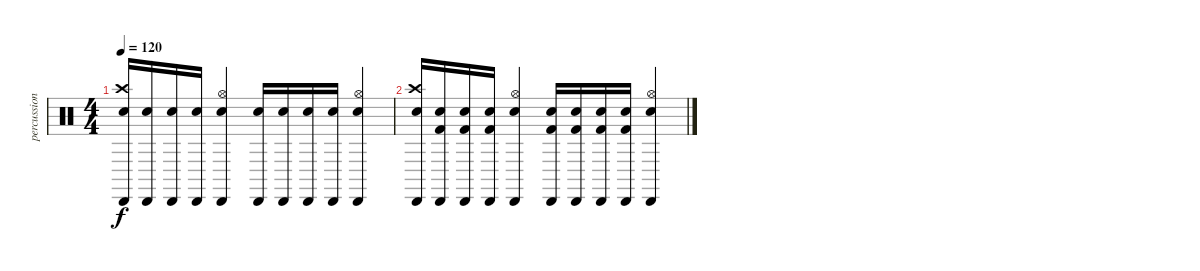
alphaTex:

\track ("percussion" "percussion") {instrument percussion}
\staff {score}
\articulation defaults
\ts (4 4)
\tempo 120
\clef neutral
\ks c
("Cabasa (hit)" "Electric Snare (hit)" "Crash high (hit)").16{dy f} ("Cabasa (hit)" "Electric Snare (hit)").16 ("Cabasa (hit)" "Electric Snare (hit)").16 ("Cabasa (hit)" "Electric Snare (hit)").16 ("Cabasa (hit)" "Electric Snare (hit)" "Hi-Hat (open)").4 ("Cabasa (hit)" "Electric Snare (hit)").16 ("Cabasa (hit)" "Electric Snare (hit)").16 ("Cabasa (hit)" "Electric Snare (hit)").16 ("Cabasa (hit)" "Electric Snare (hit)").16 ("Cabasa (hit)" "Electric Snare (hit)" "Hi-Hat (open)").4 |
("Cabasa (hit)" "Electric Snare (hit)" "Crash high (hit)").16 ("Cabasa (hit)" "Electric Snare (hit)" "Kick (hit) 2").16 ("Cabasa (hit)" "Electric Snare (hit)" "Kick (hit) 2").16 ("Cabasa (hit)" "Electric Snare (hit)" "Kick (hit) 2").16 ("Cabasa (hit)" "Electric Snare (hit)" "Hi-Hat (open)").4 ("Cabasa (hit)" "Electric Snare (hit)" "Kick (hit) 2").16 ("Cabasa (hit)" "Electric Snare (hit)" "Kick (hit) 2").16 ("Cabasa (hit)" "Electric Snare (hit)" "Kick (hit) 2").16 ("Cabasa (hit)" "Electric Snare (hit)" "Kick (hit) 2").16 ("Cabasa (hit)" "Electric Snare (hit)" "Hi-Hat (open)").4
